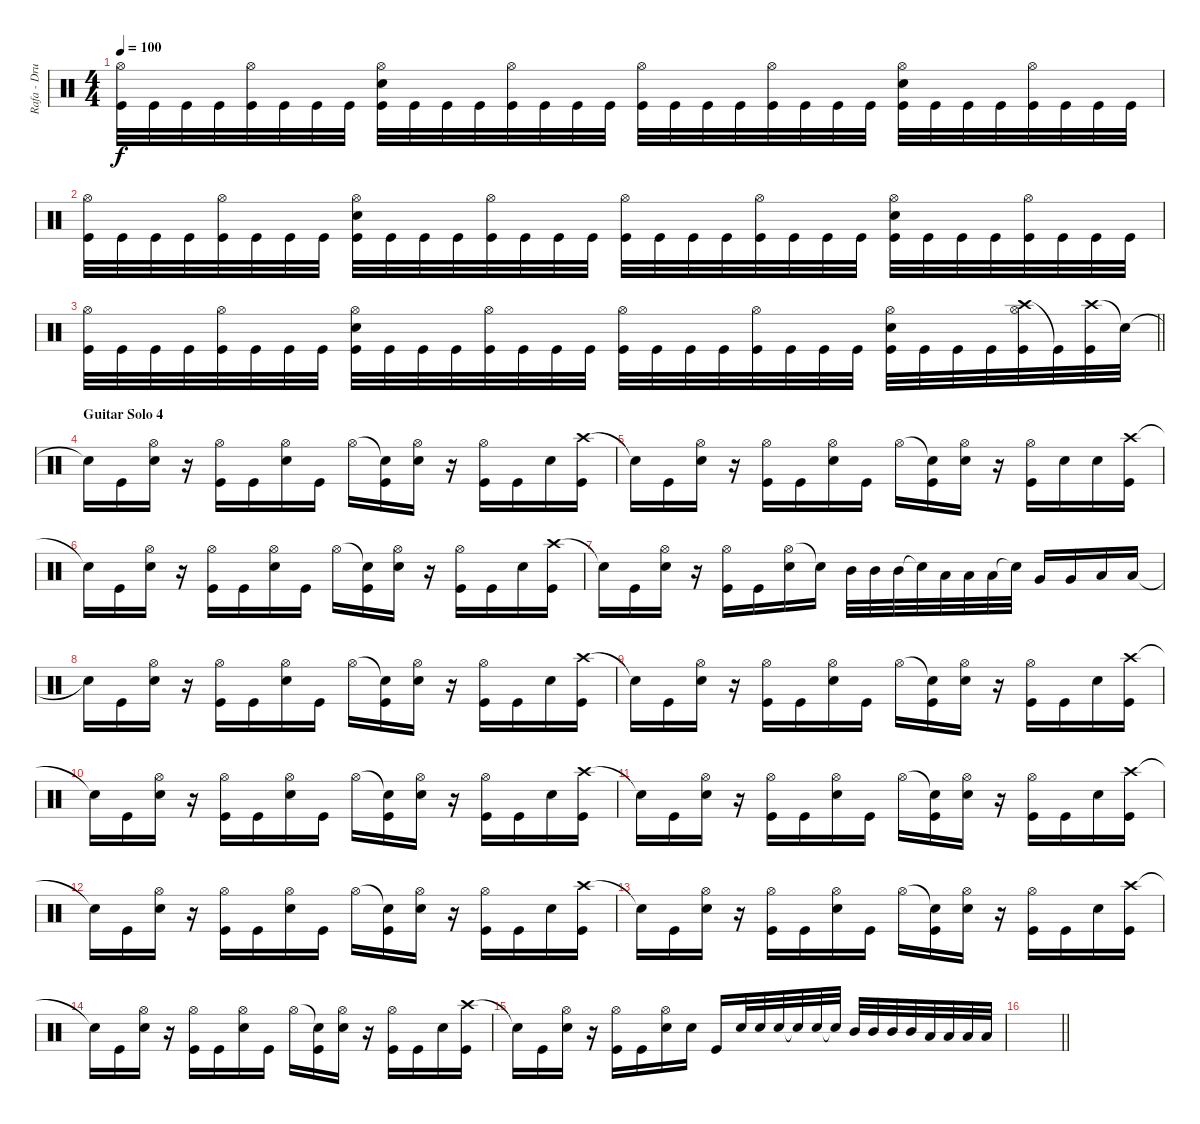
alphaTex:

\track ("Rafa - Drums" "Rafa - Dru") {instrument percussion}
\staff {score}
\articulation defaults
\ts (4 4)
\tempo 100
\clef neutral
\ks c
("Hi-Hat (open)" "Kick (hit)").32{dy f} "Kick (hit)".32 "Kick (hit)".32 "Kick (hit)".32 ("Hi-Hat (open)" "Kick (hit)").32 "Kick (hit)".32 "Kick (hit)".32 "Kick (hit)".32 ("Hi-Hat (open)" "Electric Snare (hit)" "Kick (hit)").32 "Kick (hit)".32 "Kick (hit)".32 "Kick (hit)".32 ("Hi-Hat (open)" "Kick (hit)").32 "Kick (hit)".32 "Kick (hit)".32 "Kick (hit)".32 ("Hi-Hat (open)" "Kick (hit)").32 "Kick (hit)".32 "Kick (hit)".32 "Kick (hit)".32 ("Hi-Hat (open)" "Kick (hit)").32 "Kick (hit)".32 "Kick (hit)".32 "Kick (hit)".32 ("Electric Snare (hit)" "Hi-Hat (open)" "Kick (hit)").32 "Kick (hit)".32 "Kick (hit)".32 "Kick (hit)".32 ("Hi-Hat (open)" "Kick (hit)").32 "Kick (hit)".32 "Kick (hit)".32 "Kick (hit)".32 |
("Hi-Hat (open)" "Kick (hit)").32 "Kick (hit)".32 "Kick (hit)".32 "Kick (hit)".32 ("Hi-Hat (open)" "Kick (hit)").32 "Kick (hit)".32 "Kick (hit)".32 "Kick (hit)".32 ("Hi-Hat (open)" "Electric Snare (hit)" "Kick (hit)").32 "Kick (hit)".32 "Kick (hit)".32 "Kick (hit)".32 ("Hi-Hat (open)" "Kick (hit)").32 "Kick (hit)".32 "Kick (hit)".32 "Kick (hit)".32 ("Hi-Hat (open)" "Kick (hit)").32 "Kick (hit)".32 "Kick (hit)".32 "Kick (hit)".32 ("Hi-Hat (open)" "Kick (hit)").32 "Kick (hit)".32 "Kick (hit)".32 "Kick (hit)".32 ("Electric Snare (hit)" "Hi-Hat (open)" "Kick (hit)").32 "Kick (hit)".32 "Kick (hit)".32 "Kick (hit)".32 ("Hi-Hat (open)" "Kick (hit)").32 "Kick (hit)".32 "Kick (hit)".32 "Kick (hit)".32 |
\barLineRight lightlight
("Hi-Hat (open)" "Kick (hit)").32 "Kick (hit)".32 "Kick (hit)".32 "Kick (hit)".32 ("Hi-Hat (open)" "Kick (hit)").32 "Kick (hit)".32 "Kick (hit)".32 "Kick (hit)".32 ("Hi-Hat (open)" "Electric Snare (hit)" "Kick (hit)").32 "Kick (hit)".32 "Kick (hit)".32 "Kick (hit)".32 ("Hi-Hat (open)" "Kick (hit)").32 "Kick (hit)".32 "Kick (hit)".32 "Kick (hit)".32 ("Hi-Hat (open)" "Kick (hit)").32 "Kick (hit)".32 "Kick (hit)".32 "Kick (hit)".32 ("Hi-Hat (open)" "Kick (hit)").32 "Kick (hit)".32 "Kick (hit)".32 "Kick (hit)".32 ("Electric Snare (hit)" "Hi-Hat (open)" "Kick (hit)").32 "Kick (hit)".32 "Kick (hit)".32 "Kick (hit)".32 ("Crash high (hit)" "Hi-Hat (open)" "Kick (hit)").32 "Kick (hit)"{t}.32 ("Crash high (hit)" "Kick (hit)").32 "Snare (hit)"{t}.32 |
\section ("" "Guitar Solo 4")
"Snare (hit)"{t}.16 "Kick (hit)".16 ("Hi-Hat (open)" "Electric Snare (hit)").16 r.16 ("Hi-Hat (open)" "Kick (hit)").16 "Kick (hit)".16 ("Hi-Hat (open)" "Electric Snare (hit)").16 "Kick (hit)".16 "Hi-Hat (open)".16 ("Snare (hit)"{t} "Kick (hit)").16 ("Hi-Hat (open)" "Electric Snare (hit)").16 r.16 ("Hi-Hat (open)" "Kick (hit)").16 "Kick (hit)".16 "Electric Snare (hit)".16 ("Crash high (hit)" "Kick (hit)").16 |
"Snare (hit)"{t}.16 "Kick (hit)".16 ("Hi-Hat (open)" "Electric Snare (hit)").16 r.16 ("Hi-Hat (open)" "Kick (hit)").16 "Kick (hit)".16 ("Hi-Hat (open)" "Electric Snare (hit)").16 "Kick (hit)".16 "Hi-Hat (open)".16 ("Snare (hit)"{t} "Kick (hit)").16 ("Hi-Hat (open)" "Electric Snare (hit)").16 r.16 ("Hi-Hat (open)" "Kick (hit)").16 "Electric Snare (hit)".16 "Electric Snare (hit)".16 ("Crash high (hit)" "Kick (hit)").16 |
"Snare (hit)"{t}.16 "Kick (hit)".16 ("Hi-Hat (open)" "Electric Snare (hit)").16 r.16 ("Hi-Hat (open)" "Kick (hit)").16 "Kick (hit)".16 ("Hi-Hat (open)" "Electric Snare (hit)").16 "Kick (hit)".16 "Hi-Hat (open)".16 ("Snare (hit)"{t} "Kick (hit)").16 ("Hi-Hat (open)" "Electric Snare (hit)").16 r.16 ("Hi-Hat (open)" "Kick (hit)").16 "Kick (hit)".16 "Electric Snare (hit)".16 ("Crash high (hit)" "Kick (hit)").16 |
"Snare (hit)"{t}.16 "Kick (hit)".16 ("Hi-Hat (open)" "Electric Snare (hit)").16 r.16 ("Hi-Hat (open)" "Kick (hit)").16 "Kick (hit)".16 ("Hi-Hat (open)" "Electric Snare (hit)").16 "Snare (hit)"{t}.16 "Mid Tom (hit)".32 "Mid Tom (hit)".32 "Mid Tom (hit)".32 "Snare (hit)"{t}.32 "Low Tom (hit)".32 "Low Tom (hit)".32 "Low Tom (hit)".32 "Snare (hit)"{t}.32 "Very Low Tom (hit)".16 "Very Low Tom (hit)".16 "Low Floor Tom (hit)".16 "Low Floor Tom (hit)".16 |
"Snare (hit)"{t}.16 "Kick (hit)".16 ("Hi-Hat (open)" "Electric Snare (hit)").16 r.16 ("Hi-Hat (open)" "Kick (hit)").16 "Kick (hit)".16 ("Hi-Hat (open)" "Electric Snare (hit)").16 "Kick (hit)".16 "Hi-Hat (open)".16 ("Snare (hit)"{t} "Kick (hit)").16 ("Hi-Hat (open)" "Electric Snare (hit)").16 r.16 ("Hi-Hat (open)" "Kick (hit)").16 "Kick (hit)".16 "Electric Snare (hit)".16 ("Crash high (hit)" "Kick (hit)").16 |
"Snare (hit)"{t}.16 "Kick (hit)".16 ("Hi-Hat (open)" "Electric Snare (hit)").16 r.16 ("Hi-Hat (open)" "Kick (hit)").16 "Kick (hit)".16 ("Hi-Hat (open)" "Electric Snare (hit)").16 "Kick (hit)".16 "Hi-Hat (open)".16 ("Snare (hit)"{t} "Kick (hit)").16 ("Hi-Hat (open)" "Electric Snare (hit)").16 r.16 ("Hi-Hat (open)" "Kick (hit)").16 "Kick (hit)".16 "Electric Snare (hit)".16 ("Crash high (hit)" "Kick (hit)").16 |
"Snare (hit)"{t}.16 "Kick (hit)".16 ("Hi-Hat (open)" "Electric Snare (hit)").16 r.16 ("Hi-Hat (open)" "Kick (hit)").16 "Kick (hit)".16 ("Hi-Hat (open)" "Electric Snare (hit)").16 "Kick (hit)".16 "Hi-Hat (open)".16 ("Snare (hit)"{t} "Kick (hit)").16 ("Hi-Hat (open)" "Electric Snare (hit)").16 r.16 ("Hi-Hat (open)" "Kick (hit)").16 "Kick (hit)".16 "Electric Snare (hit)".16 ("Crash high (hit)" "Kick (hit)").16 |
"Snare (hit)"{t}.16 "Kick (hit)".16 ("Hi-Hat (open)" "Electric Snare (hit)").16 r.16 ("Hi-Hat (open)" "Kick (hit)").16 "Kick (hit)".16 ("Hi-Hat (open)" "Electric Snare (hit)").16 "Kick (hit)".16 "Hi-Hat (open)".16 ("Snare (hit)"{t} "Kick (hit)").16 ("Hi-Hat (open)" "Electric Snare (hit)").16 r.16 ("Hi-Hat (open)" "Kick (hit)").16 "Kick (hit)".16 "Electric Snare (hit)".16 ("Crash high (hit)" "Kick (hit)").16 |
"Snare (hit)"{t}.16 "Kick (hit)".16 ("Hi-Hat (open)" "Electric Snare (hit)").16 r.16 ("Hi-Hat (open)" "Kick (hit)").16 "Kick (hit)".16 ("Hi-Hat (open)" "Electric Snare (hit)").16 "Kick (hit)".16 "Hi-Hat (open)".16 ("Snare (hit)"{t} "Kick (hit)").16 ("Hi-Hat (open)" "Electric Snare (hit)").16 r.16 ("Hi-Hat (open)" "Kick (hit)").16 "Kick (hit)".16 "Electric Snare (hit)".16 ("Crash high (hit)" "Kick (hit)").16 |
"Snare (hit)"{t}.16 "Kick (hit)".16 ("Hi-Hat (open)" "Electric Snare (hit)").16 r.16 ("Hi-Hat (open)" "Kick (hit)").16 "Kick (hit)".16 ("Hi-Hat (open)" "Electric Snare (hit)").16 "Kick (hit)".16 "Hi-Hat (open)".16 ("Snare (hit)"{t} "Kick (hit)").16 ("Hi-Hat (open)" "Electric Snare (hit)").16 r.16 ("Hi-Hat (open)" "Kick (hit)").16 "Kick (hit)".16 "Electric Snare (hit)".16 ("Crash high (hit)" "Kick (hit)").16 |
"Snare (hit)"{t}.16 "Kick (hit)".16 ("Hi-Hat (open)" "Electric Snare (hit)").16 r.16 ("Hi-Hat (open)" "Kick (hit)").16 "Kick (hit)".16 ("Hi-Hat (open)" "Electric Snare (hit)").16 "Kick (hit)".16 "Hi-Hat (open)".16 ("Snare (hit)"{t} "Kick (hit)").16 ("Hi-Hat (open)" "Electric Snare (hit)").16 r.16 ("Hi-Hat (open)" "Kick (hit)").16 "Kick (hit)".16 "Electric Snare (hit)".16 ("Crash high (hit)" "Kick (hit)").16 |
"Snare (hit)"{t}.16 "Kick (hit)".16 ("Hi-Hat (open)" "Electric Snare (hit)").16 r.16 ("Hi-Hat (open)" "Kick (hit)").16 "Kick (hit)".16 ("Hi-Hat (open)" "Electric Snare (hit)").16 "Electric Snare (hit)".16 "Kick (hit)".16 "Electric Snare (hit)".32 "Electric Snare (hit)".32 "Electric Snare (hit)".32 "Electric Snare (hit)"{t}.32 "Electric Snare (hit)".32 "Snare (hit)"{t}.32 "Mid Tom (hit)".32 "Mid Tom (hit)".32 "Mid Tom (hit)".32 "Mid Tom (hit)".32 "Low Tom (hit)".32 "Low Tom (hit)".32 "Low Tom (hit)".32 "Low Tom (hit)".32 |
\barLineRight lightlight
